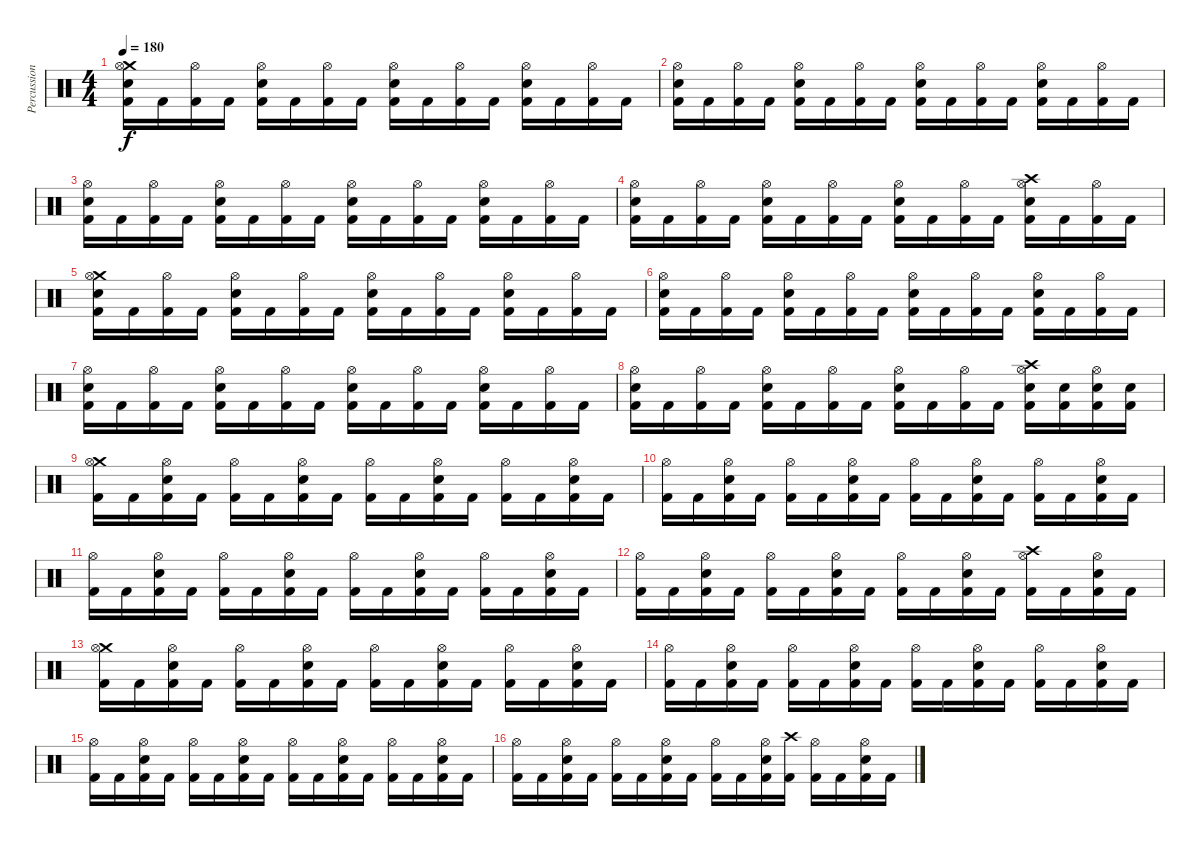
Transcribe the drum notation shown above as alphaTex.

\track ("Percussion" "Percussion") {instrument percussion}
\staff {score}
\articulation defaults
\ts (4 4)
\tempo 180
\clef neutral
\ks c
("Crash medium (hit)" "Hi-Hat (open)" "Electric Snare (hit)" "Kick (hit) 2").16{dy f} "Kick (hit) 2".16 ("Hi-Hat (open)" "Kick (hit) 2").16 "Kick (hit) 2".16 ("Hi-Hat (open)" "Electric Snare (hit)" "Kick (hit) 2").16 "Kick (hit) 2".16 ("Hi-Hat (open)" "Kick (hit) 2").16 "Kick (hit) 2".16 ("Hi-Hat (open)" "Electric Snare (hit)" "Kick (hit) 2").16 "Kick (hit) 2".16 ("Hi-Hat (open)" "Kick (hit) 2").16 "Kick (hit) 2".16 ("Hi-Hat (open)" "Electric Snare (hit)" "Kick (hit) 2").16 "Kick (hit) 2".16 ("Hi-Hat (open)" "Kick (hit) 2").16 "Kick (hit) 2".16 |
("Hi-Hat (open)" "Electric Snare (hit)" "Kick (hit) 2").16 "Kick (hit) 2".16 ("Hi-Hat (open)" "Kick (hit) 2").16 "Kick (hit) 2".16 ("Hi-Hat (open)" "Electric Snare (hit)" "Kick (hit) 2").16 "Kick (hit) 2".16 ("Hi-Hat (open)" "Kick (hit) 2").16 "Kick (hit) 2".16 ("Hi-Hat (open)" "Electric Snare (hit)" "Kick (hit) 2").16 "Kick (hit) 2".16 ("Hi-Hat (open)" "Kick (hit) 2").16 "Kick (hit) 2".16 ("Hi-Hat (open)" "Electric Snare (hit)" "Kick (hit) 2").16 "Kick (hit) 2".16 ("Hi-Hat (open)" "Kick (hit) 2").16 "Kick (hit) 2".16 |
("Hi-Hat (open)" "Electric Snare (hit)" "Kick (hit) 2").16 "Kick (hit) 2".16 ("Hi-Hat (open)" "Kick (hit) 2").16 "Kick (hit) 2".16 ("Hi-Hat (open)" "Electric Snare (hit)" "Kick (hit) 2").16 "Kick (hit) 2".16 ("Hi-Hat (open)" "Kick (hit) 2").16 "Kick (hit) 2".16 ("Hi-Hat (open)" "Electric Snare (hit)" "Kick (hit) 2").16 "Kick (hit) 2".16 ("Hi-Hat (open)" "Kick (hit) 2").16 "Kick (hit) 2".16 ("Hi-Hat (open)" "Electric Snare (hit)" "Kick (hit) 2").16 "Kick (hit) 2".16 ("Hi-Hat (open)" "Kick (hit) 2").16 "Kick (hit) 2".16 |
("Hi-Hat (open)" "Electric Snare (hit)" "Kick (hit) 2").16 "Kick (hit) 2".16 ("Hi-Hat (open)" "Kick (hit) 2").16 "Kick (hit) 2".16 ("Hi-Hat (open)" "Electric Snare (hit)" "Kick (hit) 2").16 "Kick (hit) 2".16 ("Hi-Hat (open)" "Kick (hit) 2").16 "Kick (hit) 2".16 ("Hi-Hat (open)" "Electric Snare (hit)" "Kick (hit) 2").16 "Kick (hit) 2".16 ("Hi-Hat (open)" "Kick (hit) 2").16 "Kick (hit) 2".16 ("Crash high (hit)" "Hi-Hat (open)" "Electric Snare (hit)" "Kick (hit) 2").16 "Kick (hit) 2".16 ("Hi-Hat (open)" "Kick (hit) 2").16 "Kick (hit) 2".16 |
("Crash medium (hit)" "Hi-Hat (open)" "Electric Snare (hit)" "Kick (hit) 2").16 "Kick (hit) 2".16 ("Hi-Hat (open)" "Kick (hit) 2").16 "Kick (hit) 2".16 ("Hi-Hat (open)" "Electric Snare (hit)" "Kick (hit) 2").16 "Kick (hit) 2".16 ("Hi-Hat (open)" "Kick (hit) 2").16 "Kick (hit) 2".16 ("Hi-Hat (open)" "Electric Snare (hit)" "Kick (hit) 2").16 "Kick (hit) 2".16 ("Hi-Hat (open)" "Kick (hit) 2").16 "Kick (hit) 2".16 ("Hi-Hat (open)" "Electric Snare (hit)" "Kick (hit) 2").16 "Kick (hit) 2".16 ("Hi-Hat (open)" "Kick (hit) 2").16 "Kick (hit) 2".16 |
("Hi-Hat (open)" "Electric Snare (hit)" "Kick (hit) 2").16 "Kick (hit) 2".16 ("Hi-Hat (open)" "Kick (hit) 2").16 "Kick (hit) 2".16 ("Hi-Hat (open)" "Electric Snare (hit)" "Kick (hit) 2").16 "Kick (hit) 2".16 ("Hi-Hat (open)" "Kick (hit) 2").16 "Kick (hit) 2".16 ("Hi-Hat (open)" "Electric Snare (hit)" "Kick (hit) 2").16 "Kick (hit) 2".16 ("Hi-Hat (open)" "Kick (hit) 2").16 "Kick (hit) 2".16 ("Hi-Hat (open)" "Electric Snare (hit)" "Kick (hit) 2").16 "Kick (hit) 2".16 ("Hi-Hat (open)" "Kick (hit) 2").16 "Kick (hit) 2".16 |
("Hi-Hat (open)" "Electric Snare (hit)" "Kick (hit) 2").16 "Kick (hit) 2".16 ("Hi-Hat (open)" "Kick (hit) 2").16 "Kick (hit) 2".16 ("Hi-Hat (open)" "Electric Snare (hit)" "Kick (hit) 2").16 "Kick (hit) 2".16 ("Hi-Hat (open)" "Kick (hit) 2").16 "Kick (hit) 2".16 ("Hi-Hat (open)" "Electric Snare (hit)" "Kick (hit) 2").16 "Kick (hit) 2".16 ("Hi-Hat (open)" "Kick (hit) 2").16 "Kick (hit) 2".16 ("Hi-Hat (open)" "Electric Snare (hit)" "Kick (hit) 2").16 "Kick (hit) 2".16 ("Hi-Hat (open)" "Kick (hit) 2").16 "Kick (hit) 2".16 |
("Hi-Hat (open)" "Electric Snare (hit)" "Kick (hit) 2").16 "Kick (hit) 2".16 ("Hi-Hat (open)" "Kick (hit) 2").16 "Kick (hit) 2".16 ("Hi-Hat (open)" "Electric Snare (hit)" "Kick (hit) 2").16 "Kick (hit) 2".16 ("Hi-Hat (open)" "Kick (hit) 2").16 "Kick (hit) 2".16 ("Hi-Hat (open)" "Electric Snare (hit)" "Kick (hit) 2").16 "Kick (hit) 2".16 ("Hi-Hat (open)" "Kick (hit) 2").16 "Kick (hit) 2".16 ("Crash high (hit)" "Hi-Hat (open)" "Electric Snare (hit)" "Kick (hit) 2").16 ("Electric Snare (hit)" "Kick (hit) 2").16 ("Hi-Hat (open)" "Electric Snare (hit)" "Kick (hit) 2").16 ("Electric Snare (hit)" "Kick (hit) 2").16 |
("Crash medium (hit)" "Hi-Hat (open)" "Kick (hit) 2").16 "Kick (hit) 2".16 ("Hi-Hat (open)" "Electric Snare (hit)" "Kick (hit) 2").16 "Kick (hit) 2".16 ("Hi-Hat (open)" "Kick (hit) 2").16 "Kick (hit) 2".16 ("Hi-Hat (open)" "Electric Snare (hit)" "Kick (hit) 2").16 "Kick (hit) 2".16 ("Hi-Hat (open)" "Kick (hit) 2").16 "Kick (hit) 2".16 ("Hi-Hat (open)" "Electric Snare (hit)" "Kick (hit) 2").16 "Kick (hit) 2".16 ("Hi-Hat (open)" "Kick (hit) 2").16 "Kick (hit) 2".16 ("Hi-Hat (open)" "Electric Snare (hit)" "Kick (hit) 2").16 "Kick (hit) 2".16 |
("Hi-Hat (open)" "Kick (hit) 2").16 "Kick (hit) 2".16 ("Hi-Hat (open)" "Electric Snare (hit)" "Kick (hit) 2").16 "Kick (hit) 2".16 ("Hi-Hat (open)" "Kick (hit) 2").16 "Kick (hit) 2".16 ("Hi-Hat (open)" "Electric Snare (hit)" "Kick (hit) 2").16 "Kick (hit) 2".16 ("Hi-Hat (open)" "Kick (hit) 2").16 "Kick (hit) 2".16 ("Hi-Hat (open)" "Electric Snare (hit)" "Kick (hit) 2").16 "Kick (hit) 2".16 ("Hi-Hat (open)" "Kick (hit) 2").16 "Kick (hit) 2".16 ("Hi-Hat (open)" "Electric Snare (hit)" "Kick (hit) 2").16 "Kick (hit) 2".16 |
("Hi-Hat (open)" "Kick (hit) 2").16 "Kick (hit) 2".16 ("Hi-Hat (open)" "Electric Snare (hit)" "Kick (hit) 2").16 "Kick (hit) 2".16 ("Hi-Hat (open)" "Kick (hit) 2").16 "Kick (hit) 2".16 ("Hi-Hat (open)" "Electric Snare (hit)" "Kick (hit) 2").16 "Kick (hit) 2".16 ("Hi-Hat (open)" "Kick (hit) 2").16 "Kick (hit) 2".16 ("Hi-Hat (open)" "Electric Snare (hit)" "Kick (hit) 2").16 "Kick (hit) 2".16 ("Hi-Hat (open)" "Kick (hit) 2").16 "Kick (hit) 2".16 ("Hi-Hat (open)" "Electric Snare (hit)" "Kick (hit) 2").16 "Kick (hit) 2".16 |
("Hi-Hat (open)" "Kick (hit) 2").16 "Kick (hit) 2".16 ("Hi-Hat (open)" "Electric Snare (hit)" "Kick (hit) 2").16 "Kick (hit) 2".16 ("Hi-Hat (open)" "Kick (hit) 2").16 "Kick (hit) 2".16 ("Hi-Hat (open)" "Electric Snare (hit)" "Kick (hit) 2").16 "Kick (hit) 2".16 ("Hi-Hat (open)" "Kick (hit) 2").16 "Kick (hit) 2".16 ("Hi-Hat (open)" "Electric Snare (hit)" "Kick (hit) 2").16 "Kick (hit) 2".16 ("Crash high (hit)" "Hi-Hat (open)" "Kick (hit) 2").16 "Kick (hit) 2".16 ("Hi-Hat (open)" "Electric Snare (hit)" "Kick (hit) 2").16 "Kick (hit) 2".16 |
("Crash medium (hit)" "Hi-Hat (open)" "Kick (hit) 2").16 "Kick (hit) 2".16 ("Hi-Hat (open)" "Electric Snare (hit)" "Kick (hit) 2").16 "Kick (hit) 2".16 ("Hi-Hat (open)" "Kick (hit) 2").16 "Kick (hit) 2".16 ("Hi-Hat (open)" "Electric Snare (hit)" "Kick (hit) 2").16 "Kick (hit) 2".16 ("Hi-Hat (open)" "Kick (hit) 2").16 "Kick (hit) 2".16 ("Hi-Hat (open)" "Electric Snare (hit)" "Kick (hit) 2").16 "Kick (hit) 2".16 ("Hi-Hat (open)" "Kick (hit) 2").16 "Kick (hit) 2".16 ("Hi-Hat (open)" "Electric Snare (hit)" "Kick (hit) 2").16 "Kick (hit) 2".16 |
("Hi-Hat (open)" "Kick (hit) 2").16 "Kick (hit) 2".16 ("Hi-Hat (open)" "Electric Snare (hit)" "Kick (hit) 2").16 "Kick (hit) 2".16 ("Hi-Hat (open)" "Kick (hit) 2").16 "Kick (hit) 2".16 ("Hi-Hat (open)" "Electric Snare (hit)" "Kick (hit) 2").16 "Kick (hit) 2".16 ("Hi-Hat (open)" "Kick (hit) 2").16 "Kick (hit) 2".16 ("Hi-Hat (open)" "Electric Snare (hit)" "Kick (hit) 2").16 "Kick (hit) 2".16 ("Hi-Hat (open)" "Kick (hit) 2").16 "Kick (hit) 2".16 ("Hi-Hat (open)" "Electric Snare (hit)" "Kick (hit) 2").16 "Kick (hit) 2".16 |
("Hi-Hat (open)" "Kick (hit) 2").16 "Kick (hit) 2".16 ("Hi-Hat (open)" "Electric Snare (hit)" "Kick (hit) 2").16 "Kick (hit) 2".16 ("Hi-Hat (open)" "Kick (hit) 2").16 "Kick (hit) 2".16 ("Hi-Hat (open)" "Electric Snare (hit)" "Kick (hit) 2").16 "Kick (hit) 2".16 ("Hi-Hat (open)" "Kick (hit) 2").16 "Kick (hit) 2".16 ("Hi-Hat (open)" "Electric Snare (hit)" "Kick (hit) 2").16 "Kick (hit) 2".16 ("Hi-Hat (open)" "Kick (hit) 2").16 "Kick (hit) 2".16 ("Hi-Hat (open)" "Electric Snare (hit)" "Kick (hit) 2").16 "Kick (hit) 2".16 |
("Hi-Hat (open)" "Kick (hit) 2").16 "Kick (hit) 2".16 ("Hi-Hat (open)" "Electric Snare (hit)" "Kick (hit) 2").16 "Kick (hit) 2".16 ("Hi-Hat (open)" "Kick (hit) 2").16 "Kick (hit) 2".16 ("Hi-Hat (open)" "Electric Snare (hit)" "Kick (hit) 2").16 "Kick (hit) 2".16 ("Hi-Hat (open)" "Kick (hit) 2").16 "Kick (hit) 2".16 ("Hi-Hat (open)" "Electric Snare (hit)" "Kick (hit) 2").16 ("Crash high (hit)" "Kick (hit) 2").16 ("Hi-Hat (open)" "Kick (hit) 2").16 "Kick (hit) 2".16 ("Hi-Hat (open)" "Electric Snare (hit)" "Kick (hit) 2").16 "Kick (hit) 2".16
